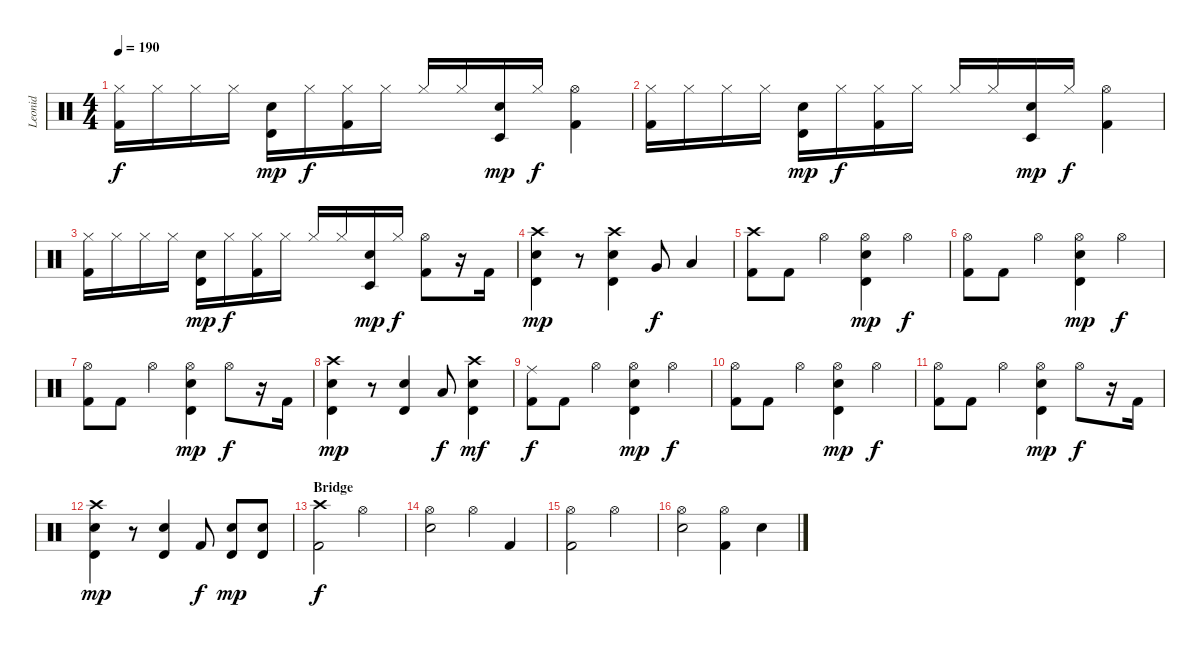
\track ("Leonid" "Leonid") {instrument percussion}
\staff {score}
\articulation defaults
\ts (4 4)
\tempo 190
\clef neutral
\ks c
("Hi-Hat (closed)" "Kick (hit) 2").16{dy f} "Hi-Hat (closed)".16 "Hi-Hat (closed)".16 "Hi-Hat (closed)".16 ("Timbale high (hit)" "Electric Snare (hit)").16{dy mp} "Hi-Hat (closed)".16{dy f} ("Hi-Hat (closed)" "Kick (hit) 2").16 "Hi-Hat (closed)".16 "Hi-Hat (closed)".16 "Hi-Hat (closed)".16 ("Timbale low (hit)" "Electric Snare (hit)").16{dy mp} "Hi-Hat (closed)".16{dy f} ("Hi-Hat (open)" "Kick (hit) 2").4 |
("Hi-Hat (closed)" "Kick (hit) 2").16 "Hi-Hat (closed)".16 "Hi-Hat (closed)".16 "Hi-Hat (closed)".16 ("Timbale high (hit)" "Electric Snare (hit)").16{dy mp} "Hi-Hat (closed)".16{dy f} ("Hi-Hat (closed)" "Kick (hit) 2").16 "Hi-Hat (closed)".16 "Hi-Hat (closed)".16 "Hi-Hat (closed)".16 ("Timbale low (hit)" "Electric Snare (hit)").16{dy mp} "Hi-Hat (closed)".16{dy f} ("Hi-Hat (open)" "Kick (hit) 2").4 |
("Hi-Hat (closed)" "Kick (hit) 2").16 "Hi-Hat (closed)".16 "Hi-Hat (closed)".16 "Hi-Hat (closed)".16 ("Timbale high (hit)" "Electric Snare (hit)").16{dy mp} "Hi-Hat (closed)".16{dy f} ("Hi-Hat (closed)" "Kick (hit) 2").16 "Hi-Hat (closed)".16 "Hi-Hat (closed)".16 "Hi-Hat (closed)".16 ("Timbale low (hit)" "Electric Snare (hit)").16{dy mp} "Hi-Hat (closed)".16{dy f} ("Hi-Hat (open)" "Kick (hit) 2").8 r.16 "Kick (hit) 2".16 |
("Crash high (hit)" "Timbale high (hit)" "Electric Snare (hit)").4{dy mp} r.8 ("Crash high (hit)" "Timbale high (hit)" "Electric Snare (hit)").4 "Very Low Tom (hit)".8{dy f} "Low Floor Tom (hit)".4 |
("Crash high (hit)" "Kick (hit) 2").8 "Kick (hit) 2".8 "Hi-Hat (open)".4 ("Hi-Hat (open)" "Timbale high (hit)" "Electric Snare (hit)").4{dy mp} "Hi-Hat (open)".4{dy f} |
("Hi-Hat (open)" "Kick (hit) 2").8 "Kick (hit) 2".8 "Hi-Hat (open)".4 ("Hi-Hat (open)" "Timbale high (hit)" "Electric Snare (hit)").4{dy mp} "Hi-Hat (open)".4{dy f} |
("Hi-Hat (open)" "Kick (hit) 2").8 "Kick (hit) 2".8 "Hi-Hat (open)".4 ("Hi-Hat (open)" "Timbale high (hit)" "Electric Snare (hit)").4{dy mp} "Hi-Hat (open)".8{dy f} r.16 "Kick (hit) 2".16 |
("Crash high (hit)" "Timbale high (hit)" "Electric Snare (hit)").4{dy mp} r.8 ("Timbale high (hit)" "Electric Snare (hit)").4 "Low Tom (hit)".8{dy f} ("Crash high (hit)" "Timbale high (hit)" "Electric Snare (hit)").4{dy mf} |
("Ride (middle)" "Kick (hit) 2").8{dy f} "Kick (hit) 2".8 "Hi-Hat (open)".4 ("Hi-Hat (open)" "Timbale high (hit)" "Electric Snare (hit)").4{dy mp} "Hi-Hat (open)".4{dy f} |
("Hi-Hat (open)" "Kick (hit) 2").8 "Kick (hit) 2".8 "Hi-Hat (open)".4 ("Hi-Hat (open)" "Timbale high (hit)" "Electric Snare (hit)").4{dy mp} "Hi-Hat (open)".4{dy f} |
("Hi-Hat (open)" "Kick (hit) 2").8 "Kick (hit) 2".8 "Hi-Hat (open)".4 ("Hi-Hat (open)" "Timbale high (hit)" "Electric Snare (hit)").4{dy mp} "Hi-Hat (open)".8{dy f} r.16 "Kick (hit) 2".16 |
("Crash high (hit)" "Timbale high (hit)" "Electric Snare (hit)").4{dy mp} r.8 ("Timbale high (hit)" "Electric Snare (hit)").4 "Kick (hit) 2".8{dy f} ("Timbale high (hit)" "Electric Snare (hit)").8{dy mp} ("Timbale high (hit)" "Electric Snare (hit)").8 |
\section ("" "Bridge")
("Crash high (hit)" "Kick (hit) 2").2{dy f} "Hi-Hat (open)".2 |
("Hi-Hat (open)" "Electric Snare (hit)").2 "Hi-Hat (open)".4 "Kick (hit) 2".4 |
("Hi-Hat (open)" "Kick (hit) 2").2 "Hi-Hat (open)".2 |
("Hi-Hat (open)" "Electric Snare (hit)").2 ("Hi-Hat (open)" "Kick (hit) 2").4 "Electric Snare (hit)".4
